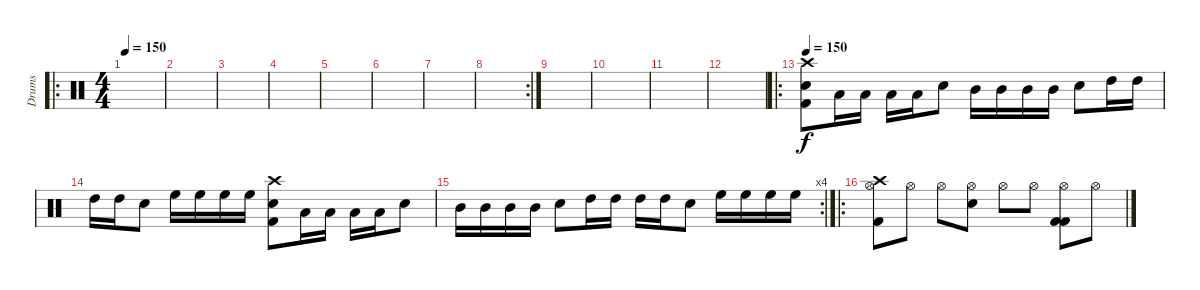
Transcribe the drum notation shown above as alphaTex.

\track ("Drums" "Drums") {instrument percussion}
\staff {score}
\articulation defaults
\ro
\ts (4 4)
\tempo 150
\clef neutral
\ks c
|
|
|
|
|
|
|
\rc 2
|
|
|
|
|
\ro
\tempo 150
("Crash high (hit)" "Snare (hit) 2" "Kick (hit) 2").8 "Low Tom (hit)".16 "Low Tom (hit)".16 "Low Tom (hit)".16 "Low Tom (hit)".16 "Snare (hit) 2".8 "Mid Tom (hit)".16 "Mid Tom (hit)".16 "Mid Tom (hit)".16 "Mid Tom (hit)".16 "Snare (hit) 2".8 "High Tom (hit)".16 "High Tom (hit)".16 |
"High Tom (hit)".16 "High Tom (hit)".16 "Snare (hit) 2".8 "High Floor Tom (hit)".16 "High Floor Tom (hit)".16 "High Floor Tom (hit)".16 "High Floor Tom (hit)".16 ("Kick (hit) 2" "Crash high (hit)" "Snare (hit) 2").8 "Low Tom (hit)".16 "Low Tom (hit)".16 "Low Tom (hit)".16 "Low Tom (hit)".16 "Snare (hit) 2".8 |
\rc 4 "Mid Tom (hit)".16 "Mid Tom (hit)".16 "Mid Tom (hit)".16 "Mid Tom (hit)".16 "Snare (hit) 2".8 "High Tom (hit)".16 "High Tom (hit)".16 "High Tom (hit)".16 "High Tom (hit)".16 "Snare (hit) 2".8 "High Floor Tom (hit)".16 "High Floor Tom (hit)".16 "High Floor Tom (hit)".16 "High Floor Tom (hit)".16
|
\ro
("Crash high (hit)" "Kick (hit) 2" "Hi-Hat (open)").8 "Hi-Hat (open)".8 "Hi-Hat (open)".8 ("Snare (hit) 2" "Hi-Hat (open)").8 "Hi-Hat (open)".8 "Hi-Hat (open)".8 ("Kick (hit) 2" "Kick (hit) 2" "Hi-Hat (open)").8 "Hi-Hat (open)".8
